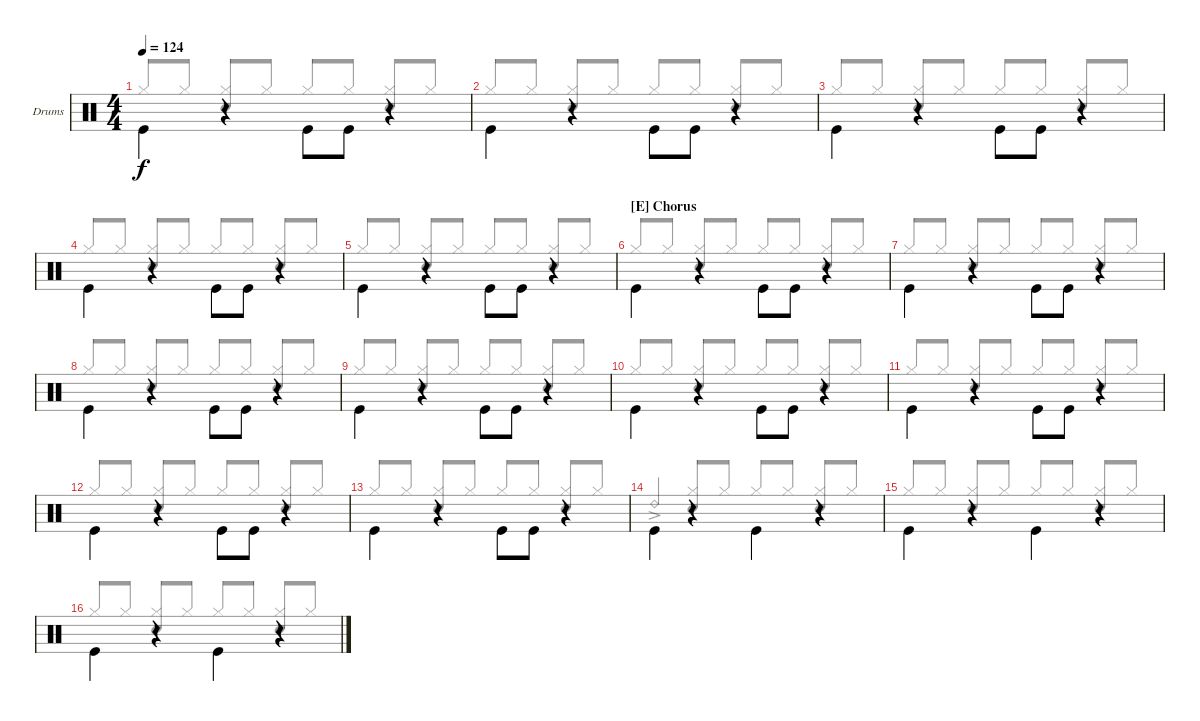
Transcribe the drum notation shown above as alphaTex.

\bracketExtendMode groupsimilarinstruments
\firstSystemTrackNameOrientation horizontal
\otherSystemsTrackNameOrientation horizontal
\track ("Drums" "Drums") {instrument percussion}
\staff {score}
\articulation defaults
\voice
\ts (4 4)
\tempo 124
\clef neutral
\scale
1.02648
\ks c "Kick (hit)".4{dy f beam invert}
r.4 "Kick (hit)".8{beam invert} "Kick (hit)".8 r.4 |
\scale
0.973518 "Kick (hit)".4{beam invert} r.4 "Kick (hit)".8{beam invert} "Kick (hit)".8 r.4 |
\scale
1.02648 "Kick (hit)".4{beam invert} r.4 "Kick (hit)".8{beam invert} "Kick (hit)".8 r.4 |
\scale
0.973518 "Kick (hit)".4{beam invert} r.4 "Kick (hit)".8{beam invert} "Kick (hit)".8 r.4 |
\scale
1.02648 "Kick (hit)".4{beam invert} r.4 "Kick (hit)".8{beam invert} "Kick (hit)".8 r.4 |
\section ("E" "Chorus")
\scale
0.973518 "Kick (hit)".4{beam invert} r.4 "Kick (hit)".8{beam invert} "Kick (hit)".8 r.4 |
\scale
1.02648 "Kick (hit)".4{beam invert} r.4 "Kick (hit)".8{beam invert} "Kick (hit)".8 r.4 |
\scale
0.973518 "Kick (hit)".4{beam invert} r.4 "Kick (hit)".8{beam invert} "Kick (hit)".8 r.4 |
\scale
1.02648 "Kick (hit)".4{beam invert} r.4 "Kick (hit)".8{beam invert} "Kick (hit)".8 r.4 |
\scale
0.973518 "Kick (hit)".4{beam invert} r.4 "Kick (hit)".8{beam invert} "Kick (hit)".8 r.4 |
\scale
1.02648 "Kick (hit)".4{beam invert} r.4 "Kick (hit)".8{beam invert} "Kick (hit)".8 r.4 |
\scale
0.973518 "Kick (hit)".4{beam invert} r.4 "Kick (hit)".8{beam invert} "Kick (hit)".8 r.4 |
\scale
1.02648 "Kick (hit)".4{beam invert} r.4 "Kick (hit)".8{beam invert} "Kick (hit)".8 r.4 |
\scale
0.973518 "Kick (hit)".4{beam invert} r.4 "Kick (hit)".4{beam invert} r.4 |
\scale
1.02648 "Kick (hit)".4{beam invert} r.4 "Kick (hit)".4{beam invert} r.4 |
\scale
0.973518 "Kick (hit)".4{beam invert} r.4 "Kick (hit)".4{beam invert} r.4
\voice
\clef neutral
\ottava regular
\simile none
\scale
1.02648
\ks c "Hi-Hat (closed)".8{dy f beam invert} "Hi-Hat (closed)".8
("Hi-Hat (closed)" "Snare (hit) 2").8{beam invert} "Hi-Hat (closed)".8 "Hi-Hat (closed)".8{beam invert} "Hi-Hat (closed)".8 ("Hi-Hat (closed)" "Snare (hit) 2").8{beam invert} "Hi-Hat (closed)".8 |
\scale
0.973518 "Hi-Hat (closed)".8{beam invert} "Hi-Hat (closed)".8 ("Hi-Hat (closed)" "Snare (hit) 2").8{beam invert} "Hi-Hat (closed)".8 "Hi-Hat (closed)".8{beam invert} "Hi-Hat (closed)".8 ("Hi-Hat (closed)" "Snare (hit) 2").8{beam invert} "Hi-Hat (closed)".8 |
\scale
1.02648 "Hi-Hat (closed)".8{beam invert} "Hi-Hat (closed)".8 ("Hi-Hat (closed)" "Snare (hit) 2").8{beam invert} "Hi-Hat (closed)".8 "Hi-Hat (closed)".8{beam invert} "Hi-Hat (closed)".8 ("Hi-Hat (closed)" "Snare (hit) 2").8{beam invert} "Hi-Hat (closed)".8 |
\scale
0.973518 "Hi-Hat (closed)".8{beam invert} "Hi-Hat (closed)".8 ("Hi-Hat (closed)" "Snare (hit) 2").8{beam invert} "Hi-Hat (closed)".8 "Hi-Hat (closed)".8{beam invert} "Hi-Hat (closed)".8 ("Hi-Hat (closed)" "Snare (hit) 2").8{beam invert} "Hi-Hat (closed)".8 |
\scale
1.02648 "Hi-Hat (closed)".8{beam invert} "Hi-Hat (closed)".8 ("Hi-Hat (closed)" "Snare (hit) 2").8{beam invert} "Hi-Hat (closed)".8 "Hi-Hat (closed)".8{beam invert} "Hi-Hat (closed)".8 ("Hi-Hat (closed)" "Snare (hit) 2").8{beam invert} "Hi-Hat (closed)".8 |
\scale
0.973518 "Hi-Hat (closed)".8{beam invert} "Hi-Hat (closed)".8 ("Hi-Hat (closed)" "Snare (hit) 2").8{beam invert} "Hi-Hat (closed)".8 "Hi-Hat (closed)".8{beam invert} "Hi-Hat (closed)".8 ("Hi-Hat (closed)" "Snare (hit) 2").8{beam invert} "Hi-Hat (closed)".8 |
\scale
1.02648 "Hi-Hat (closed)".8{beam invert} "Hi-Hat (closed)".8 ("Hi-Hat (closed)" "Snare (hit) 2").8{beam invert} "Hi-Hat (closed)".8 "Hi-Hat (closed)".8{beam invert} "Hi-Hat (closed)".8 ("Hi-Hat (closed)" "Snare (hit) 2").8{beam invert} "Hi-Hat (closed)".8 |
\scale
0.973518 "Hi-Hat (closed)".8{beam invert} "Hi-Hat (closed)".8 ("Hi-Hat (closed)" "Snare (hit) 2").8{beam invert} "Hi-Hat (closed)".8 "Hi-Hat (closed)".8{beam invert} "Hi-Hat (closed)".8 ("Hi-Hat (closed)" "Snare (hit) 2").8{beam invert} "Hi-Hat (closed)".8 |
\scale
1.02648 "Hi-Hat (closed)".8{beam invert} "Hi-Hat (closed)".8 ("Hi-Hat (closed)" "Snare (hit) 2").8{beam invert} "Hi-Hat (closed)".8 "Hi-Hat (closed)".8{beam invert} "Hi-Hat (closed)".8 ("Hi-Hat (closed)" "Snare (hit) 2").8{beam invert} "Hi-Hat (closed)".8 |
\scale
0.973518 "Hi-Hat (closed)".8{beam invert} "Hi-Hat (closed)".8 ("Hi-Hat (closed)" "Snare (hit) 2").8{beam invert} "Hi-Hat (closed)".8 "Hi-Hat (closed)".8{beam invert} "Hi-Hat (closed)".8 ("Hi-Hat (closed)" "Snare (hit) 2").8{beam invert} "Hi-Hat (closed)".8 |
\scale
1.02648 "Hi-Hat (closed)".8{beam invert} "Hi-Hat (closed)".8 ("Hi-Hat (closed)" "Snare (hit) 2").8{beam invert} "Hi-Hat (closed)".8 "Hi-Hat (closed)".8{beam invert} "Hi-Hat (closed)".8 ("Hi-Hat (closed)" "Snare (hit) 2").8{beam invert} "Hi-Hat (closed)".8 |
\scale
0.973518 "Hi-Hat (closed)".8{beam invert} "Hi-Hat (closed)".8 ("Hi-Hat (closed)" "Snare (hit) 2").8{beam invert} "Hi-Hat (closed)".8 "Hi-Hat (closed)".8{beam invert} "Hi-Hat (closed)".8 ("Hi-Hat (closed)" "Snare (hit) 2").8{beam invert} "Hi-Hat (closed)".8 |
\scale
1.02648 "Hi-Hat (closed)".8{beam invert} "Hi-Hat (closed)".8 ("Hi-Hat (closed)" "Snare (hit) 2").8{beam invert} "Hi-Hat (closed)".8 "Hi-Hat (closed)".8{beam invert} "Hi-Hat (closed)".8 ("Hi-Hat (closed)" "Snare (hit) 2").8{beam invert} "Hi-Hat (closed)".8 |
\scale
0.973518 "Ride (bell) 2"{ac}.4{beam invert} ("Hi-Hat (closed)" "Snare (hit) 2").8{beam invert} "Hi-Hat (closed)".8 "Hi-Hat (closed)".8{beam invert} "Hi-Hat (closed)".8 ("Hi-Hat (closed)" "Snare (hit) 2").8{beam invert} "Hi-Hat (closed)".8 |
\scale
1.02648 "Hi-Hat (closed)".8{beam invert} "Hi-Hat (closed)".8 ("Hi-Hat (closed)" "Snare (hit) 2").8{beam invert} "Hi-Hat (closed)".8 "Hi-Hat (closed)".8{beam invert} "Hi-Hat (closed)".8 ("Hi-Hat (closed)" "Snare (hit) 2").8{beam invert} "Hi-Hat (closed)".8 |
\scale
0.973518 "Hi-Hat (closed)".8{beam invert} "Hi-Hat (closed)".8 ("Hi-Hat (closed)" "Snare (hit) 2").8{beam invert} "Hi-Hat (closed)".8 "Hi-Hat (closed)".8{beam invert} "Hi-Hat (closed)".8 ("Hi-Hat (closed)" "Snare (hit) 2").8{beam invert} "Hi-Hat (closed)".8
